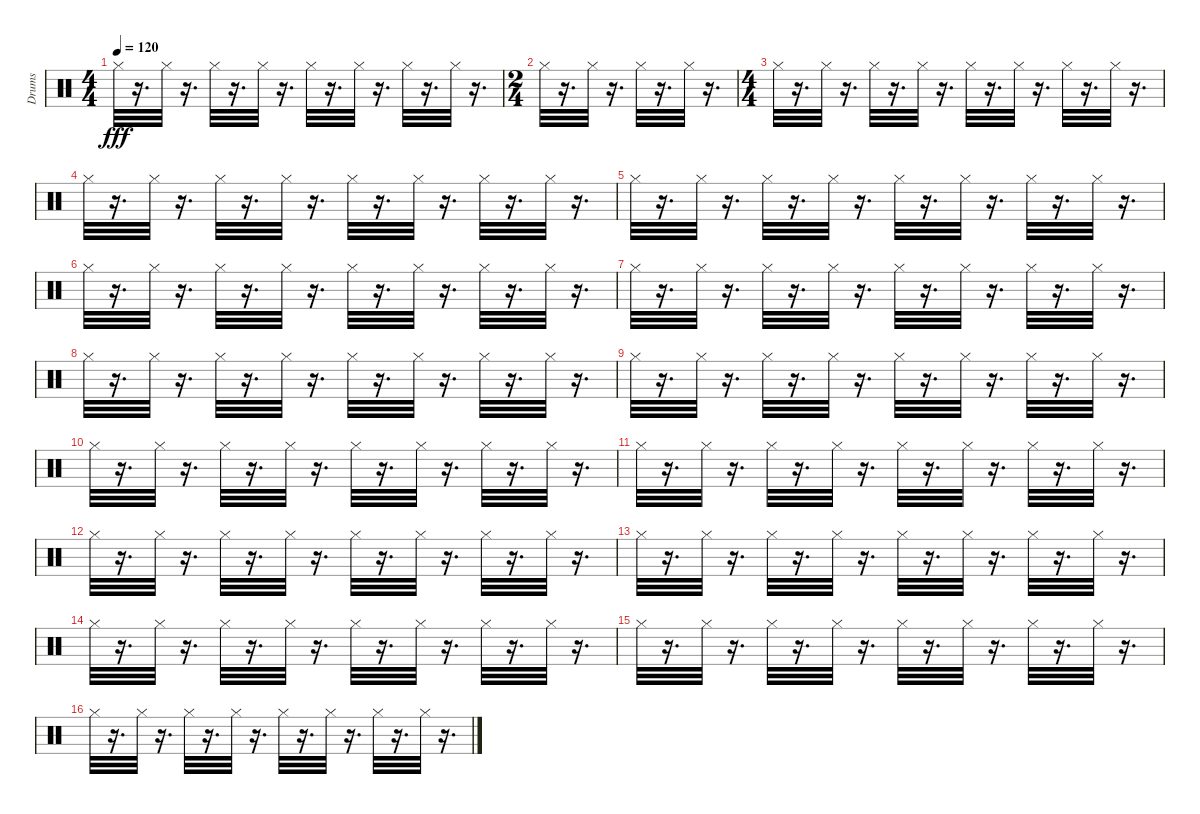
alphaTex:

\track ("Drums" "Drums") {instrument percussion}
\staff {score}
\articulation defaults
\ts (4 4)
\tempo 120
\clef neutral
\ks c "Hi-Hat (closed)".32{dy fff}
r.16{d} "Hi-Hat (closed)".32 r.16{d} "Hi-Hat (closed)".32 r.16{d} "Hi-Hat (closed)".32 r.16{d} "Hi-Hat (closed)".32 r.16{d} "Hi-Hat (closed)".32 r.16{d} "Hi-Hat (closed)".32 r.16{d} "Hi-Hat (closed)".32 r.16{d} |
\ts (2 4)
"Hi-Hat (closed)".32 r.16{d} "Hi-Hat (closed)".32 r.16{d} "Hi-Hat (closed)".32 r.16{d} "Hi-Hat (closed)".32 r.16{d} |
\ts (4 4)
"Hi-Hat (closed)".32 r.16{d} "Hi-Hat (closed)".32 r.16{d} "Hi-Hat (closed)".32 r.16{d} "Hi-Hat (closed)".32 r.16{d} "Hi-Hat (closed)".32 r.16{d} "Hi-Hat (closed)".32 r.16{d} "Hi-Hat (closed)".32 r.16{d} "Hi-Hat (closed)".32 r.16{d} |
"Hi-Hat (closed)".32 r.16{d} "Hi-Hat (closed)".32 r.16{d} "Hi-Hat (closed)".32 r.16{d} "Hi-Hat (closed)".32 r.16{d} "Hi-Hat (closed)".32 r.16{d} "Hi-Hat (closed)".32 r.16{d} "Hi-Hat (closed)".32 r.16{d} "Hi-Hat (closed)".32 r.16{d} |
"Hi-Hat (closed)".32 r.16{d} "Hi-Hat (closed)".32 r.16{d} "Hi-Hat (closed)".32 r.16{d} "Hi-Hat (closed)".32 r.16{d} "Hi-Hat (closed)".32 r.16{d} "Hi-Hat (closed)".32 r.16{d} "Hi-Hat (closed)".32 r.16{d} "Hi-Hat (closed)".32 r.16{d} |
"Hi-Hat (closed)".32 r.16{d} "Hi-Hat (closed)".32 r.16{d} "Hi-Hat (closed)".32 r.16{d} "Hi-Hat (closed)".32 r.16{d} "Hi-Hat (closed)".32 r.16{d} "Hi-Hat (closed)".32 r.16{d} "Hi-Hat (closed)".32 r.16{d} "Hi-Hat (closed)".32 r.16{d} |
"Hi-Hat (closed)".32 r.16{d} "Hi-Hat (closed)".32 r.16{d} "Hi-Hat (closed)".32 r.16{d} "Hi-Hat (closed)".32 r.16{d} "Hi-Hat (closed)".32 r.16{d} "Hi-Hat (closed)".32 r.16{d} "Hi-Hat (closed)".32 r.16{d} "Hi-Hat (closed)".32 r.16{d} |
"Hi-Hat (closed)".32 r.16{d} "Hi-Hat (closed)".32 r.16{d} "Hi-Hat (closed)".32 r.16{d} "Hi-Hat (closed)".32 r.16{d} "Hi-Hat (closed)".32 r.16{d} "Hi-Hat (closed)".32 r.16{d} "Hi-Hat (closed)".32 r.16{d} "Hi-Hat (closed)".32 r.16{d} |
"Hi-Hat (closed)".32 r.16{d} "Hi-Hat (closed)".32 r.16{d} "Hi-Hat (closed)".32 r.16{d} "Hi-Hat (closed)".32 r.16{d} "Hi-Hat (closed)".32 r.16{d} "Hi-Hat (closed)".32 r.16{d} "Hi-Hat (closed)".32 r.16{d} "Hi-Hat (closed)".32 r.16{d} |
"Hi-Hat (closed)".32 r.16{d} "Hi-Hat (closed)".32 r.16{d} "Hi-Hat (closed)".32 r.16{d} "Hi-Hat (closed)".32 r.16{d} "Hi-Hat (closed)".32 r.16{d} "Hi-Hat (closed)".32 r.16{d} "Hi-Hat (closed)".32 r.16{d} "Hi-Hat (closed)".32 r.16{d} |
"Hi-Hat (closed)".32 r.16{d} "Hi-Hat (closed)".32 r.16{d} "Hi-Hat (closed)".32 r.16{d} "Hi-Hat (closed)".32 r.16{d} "Hi-Hat (closed)".32 r.16{d} "Hi-Hat (closed)".32 r.16{d} "Hi-Hat (closed)".32 r.16{d} "Hi-Hat (closed)".32 r.16{d} |
"Hi-Hat (closed)".32 r.16{d} "Hi-Hat (closed)".32 r.16{d} "Hi-Hat (closed)".32 r.16{d} "Hi-Hat (closed)".32 r.16{d} "Hi-Hat (closed)".32 r.16{d} "Hi-Hat (closed)".32 r.16{d} "Hi-Hat (closed)".32 r.16{d} "Hi-Hat (closed)".32 r.16{d} |
"Hi-Hat (closed)".32 r.16{d} "Hi-Hat (closed)".32 r.16{d} "Hi-Hat (closed)".32 r.16{d} "Hi-Hat (closed)".32 r.16{d} "Hi-Hat (closed)".32 r.16{d} "Hi-Hat (closed)".32 r.16{d} "Hi-Hat (closed)".32 r.16{d} "Hi-Hat (closed)".32 r.16{d} |
"Hi-Hat (closed)".32 r.16{d} "Hi-Hat (closed)".32 r.16{d} "Hi-Hat (closed)".32 r.16{d} "Hi-Hat (closed)".32 r.16{d} "Hi-Hat (closed)".32 r.16{d} "Hi-Hat (closed)".32 r.16{d} "Hi-Hat (closed)".32 r.16{d} "Hi-Hat (closed)".32 r.16{d} |
"Hi-Hat (closed)".32 r.16{d} "Hi-Hat (closed)".32 r.16{d} "Hi-Hat (closed)".32 r.16{d} "Hi-Hat (closed)".32 r.16{d} "Hi-Hat (closed)".32 r.16{d} "Hi-Hat (closed)".32 r.16{d} "Hi-Hat (closed)".32 r.16{d} "Hi-Hat (closed)".32 r.16{d} |
"Hi-Hat (closed)".32 r.16{d} "Hi-Hat (closed)".32 r.16{d} "Hi-Hat (closed)".32 r.16{d} "Hi-Hat (closed)".32 r.16{d} "Hi-Hat (closed)".32 r.16{d} "Hi-Hat (closed)".32 r.16{d} "Hi-Hat (closed)".32 r.16{d} "Hi-Hat (closed)".32 r.16{d}
